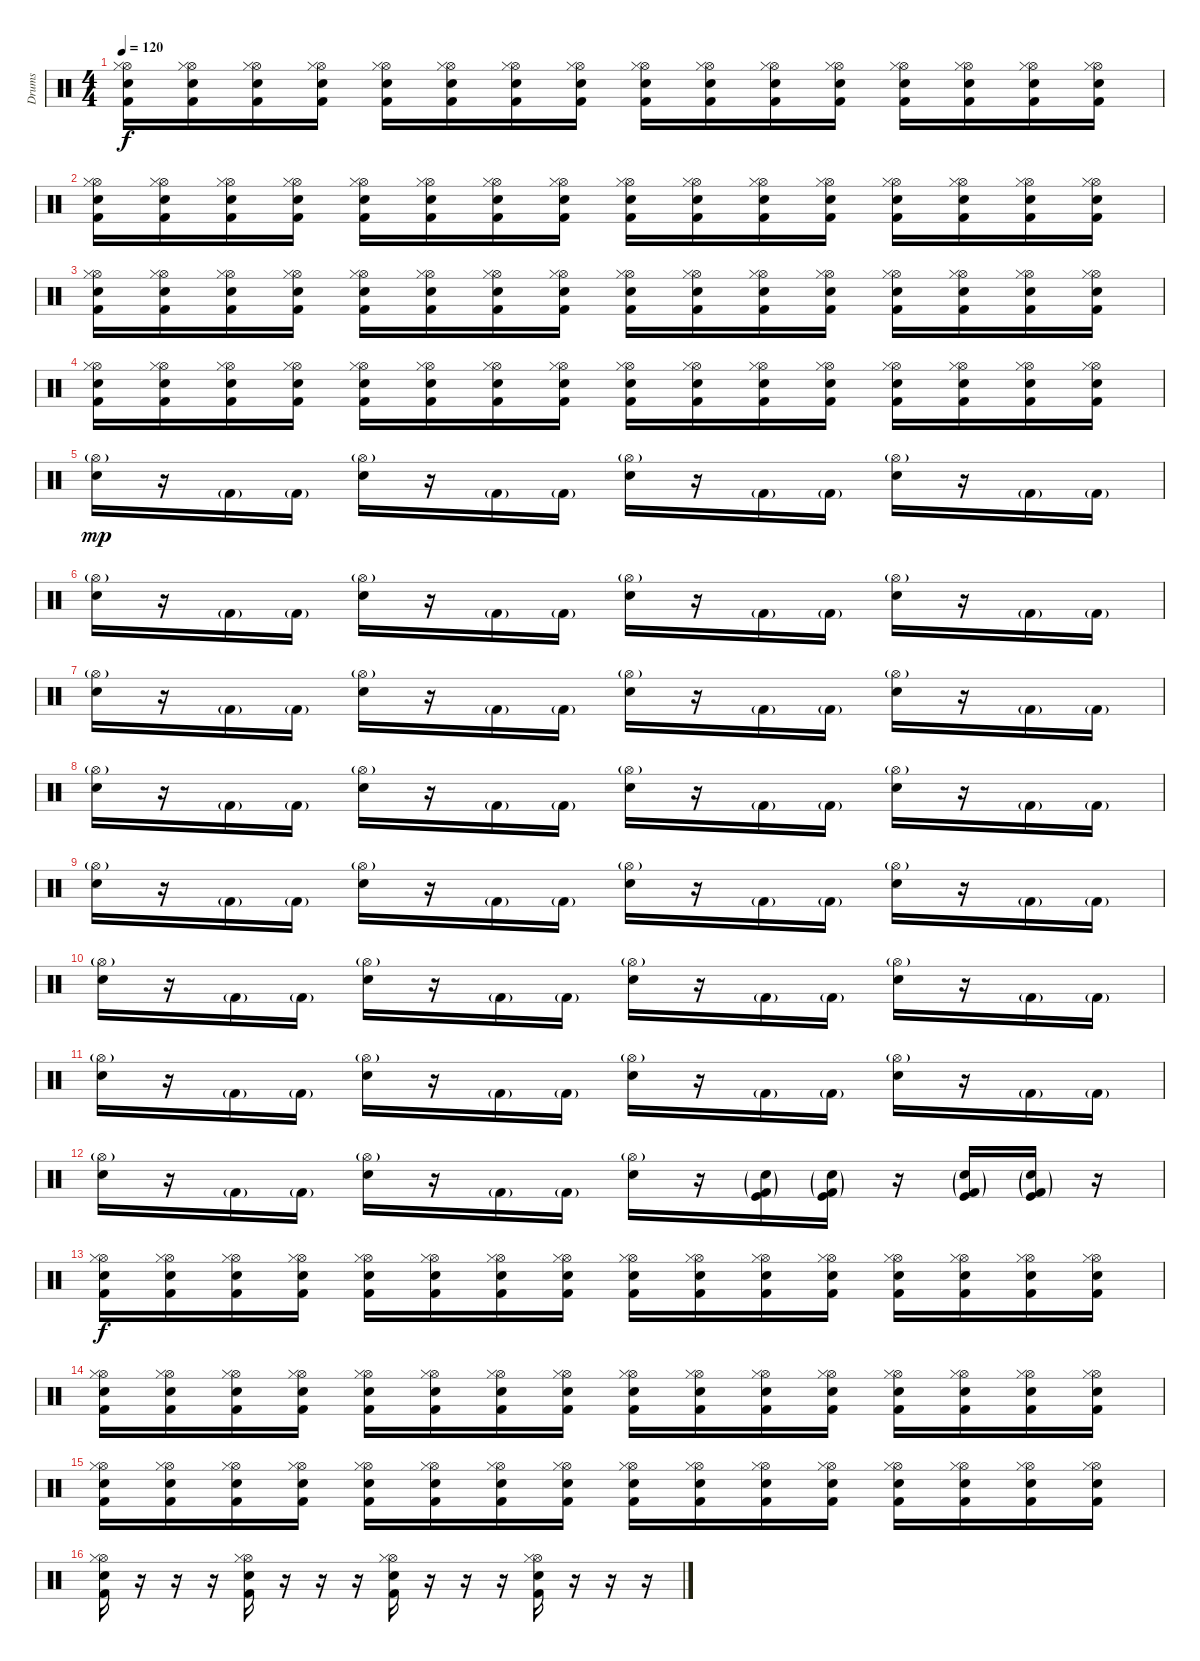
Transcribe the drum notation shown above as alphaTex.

\track ("Drums" "Drums") {instrument percussion}
\staff {score}
\articulation defaults
\ts (4 4)
\tempo 120
\clef neutral
\ks c
("Kick (hit) 2" "Electric Snare (hit)" "Hi-Hat (open)" "Hi-Hat (closed)").16{dy f} ("Kick (hit) 2" "Electric Snare (hit)" "Hi-Hat (open)" "Hi-Hat (closed)").16 ("Kick (hit) 2" "Electric Snare (hit)" "Hi-Hat (open)" "Hi-Hat (closed)").16 ("Kick (hit) 2" "Electric Snare (hit)" "Hi-Hat (open)" "Hi-Hat (closed)").16 ("Kick (hit) 2" "Electric Snare (hit)" "Hi-Hat (open)" "Hi-Hat (closed)").16 ("Kick (hit) 2" "Electric Snare (hit)" "Hi-Hat (open)" "Hi-Hat (closed)").16 ("Kick (hit) 2" "Electric Snare (hit)" "Hi-Hat (open)" "Hi-Hat (closed)").16 ("Kick (hit) 2" "Electric Snare (hit)" "Hi-Hat (open)" "Hi-Hat (closed)").16 ("Kick (hit) 2" "Electric Snare (hit)" "Hi-Hat (open)" "Hi-Hat (closed)").16 ("Kick (hit) 2" "Electric Snare (hit)" "Hi-Hat (open)" "Hi-Hat (closed)").16 ("Kick (hit) 2" "Electric Snare (hit)" "Hi-Hat (open)" "Hi-Hat (closed)").16 ("Kick (hit) 2" "Electric Snare (hit)" "Hi-Hat (open)" "Hi-Hat (closed)").16 ("Kick (hit) 2" "Electric Snare (hit)" "Hi-Hat (open)" "Hi-Hat (closed)").16 ("Kick (hit) 2" "Electric Snare (hit)" "Hi-Hat (open)" "Hi-Hat (closed)").16 ("Kick (hit) 2" "Electric Snare (hit)" "Hi-Hat (open)" "Hi-Hat (closed)").16 ("Kick (hit) 2" "Electric Snare (hit)" "Hi-Hat (open)" "Hi-Hat (closed)").16 |
("Kick (hit) 2" "Electric Snare (hit)" "Hi-Hat (open)" "Hi-Hat (closed)").16 ("Kick (hit) 2" "Electric Snare (hit)" "Hi-Hat (open)" "Hi-Hat (closed)").16 ("Kick (hit) 2" "Electric Snare (hit)" "Hi-Hat (open)" "Hi-Hat (closed)").16 ("Kick (hit) 2" "Electric Snare (hit)" "Hi-Hat (open)" "Hi-Hat (closed)").16 ("Kick (hit) 2" "Electric Snare (hit)" "Hi-Hat (open)" "Hi-Hat (closed)").16 ("Kick (hit) 2" "Electric Snare (hit)" "Hi-Hat (open)" "Hi-Hat (closed)").16 ("Kick (hit) 2" "Electric Snare (hit)" "Hi-Hat (open)" "Hi-Hat (closed)").16 ("Kick (hit) 2" "Electric Snare (hit)" "Hi-Hat (open)" "Hi-Hat (closed)").16 ("Kick (hit) 2" "Electric Snare (hit)" "Hi-Hat (open)" "Hi-Hat (closed)").16 ("Kick (hit) 2" "Electric Snare (hit)" "Hi-Hat (open)" "Hi-Hat (closed)").16 ("Kick (hit) 2" "Electric Snare (hit)" "Hi-Hat (open)" "Hi-Hat (closed)").16 ("Kick (hit) 2" "Electric Snare (hit)" "Hi-Hat (open)" "Hi-Hat (closed)").16 ("Kick (hit) 2" "Electric Snare (hit)" "Hi-Hat (open)" "Hi-Hat (closed)").16 ("Kick (hit) 2" "Electric Snare (hit)" "Hi-Hat (open)" "Hi-Hat (closed)").16 ("Kick (hit) 2" "Electric Snare (hit)" "Hi-Hat (open)" "Hi-Hat (closed)").16 ("Kick (hit) 2" "Electric Snare (hit)" "Hi-Hat (open)" "Hi-Hat (closed)").16 |
("Kick (hit) 2" "Electric Snare (hit)" "Hi-Hat (open)" "Hi-Hat (closed)").16 ("Kick (hit) 2" "Electric Snare (hit)" "Hi-Hat (open)" "Hi-Hat (closed)").16 ("Kick (hit) 2" "Electric Snare (hit)" "Hi-Hat (open)" "Hi-Hat (closed)").16 ("Kick (hit) 2" "Electric Snare (hit)" "Hi-Hat (open)" "Hi-Hat (closed)").16 ("Kick (hit) 2" "Electric Snare (hit)" "Hi-Hat (open)" "Hi-Hat (closed)").16 ("Kick (hit) 2" "Electric Snare (hit)" "Hi-Hat (open)" "Hi-Hat (closed)").16 ("Kick (hit) 2" "Electric Snare (hit)" "Hi-Hat (open)" "Hi-Hat (closed)").16 ("Kick (hit) 2" "Electric Snare (hit)" "Hi-Hat (open)" "Hi-Hat (closed)").16 ("Kick (hit) 2" "Electric Snare (hit)" "Hi-Hat (open)" "Hi-Hat (closed)").16 ("Kick (hit) 2" "Electric Snare (hit)" "Hi-Hat (open)" "Hi-Hat (closed)").16 ("Kick (hit) 2" "Electric Snare (hit)" "Hi-Hat (open)" "Hi-Hat (closed)").16 ("Kick (hit) 2" "Electric Snare (hit)" "Hi-Hat (open)" "Hi-Hat (closed)").16 ("Kick (hit) 2" "Electric Snare (hit)" "Hi-Hat (open)" "Hi-Hat (closed)").16 ("Kick (hit) 2" "Electric Snare (hit)" "Hi-Hat (open)" "Hi-Hat (closed)").16 ("Kick (hit) 2" "Electric Snare (hit)" "Hi-Hat (open)" "Hi-Hat (closed)").16 ("Kick (hit) 2" "Electric Snare (hit)" "Hi-Hat (open)" "Hi-Hat (closed)").16 |
("Kick (hit) 2" "Electric Snare (hit)" "Hi-Hat (open)" "Hi-Hat (closed)").16 ("Kick (hit) 2" "Electric Snare (hit)" "Hi-Hat (open)" "Hi-Hat (closed)").16 ("Kick (hit) 2" "Electric Snare (hit)" "Hi-Hat (open)" "Hi-Hat (closed)").16 ("Kick (hit) 2" "Electric Snare (hit)" "Hi-Hat (open)" "Hi-Hat (closed)").16 ("Kick (hit) 2" "Electric Snare (hit)" "Hi-Hat (open)" "Hi-Hat (closed)").16 ("Kick (hit) 2" "Electric Snare (hit)" "Hi-Hat (open)" "Hi-Hat (closed)").16 ("Kick (hit) 2" "Electric Snare (hit)" "Hi-Hat (open)" "Hi-Hat (closed)").16 ("Kick (hit) 2" "Electric Snare (hit)" "Hi-Hat (open)" "Hi-Hat (closed)").16 ("Kick (hit) 2" "Electric Snare (hit)" "Hi-Hat (open)" "Hi-Hat (closed)").16 ("Kick (hit) 2" "Electric Snare (hit)" "Hi-Hat (open)" "Hi-Hat (closed)").16 ("Kick (hit) 2" "Electric Snare (hit)" "Hi-Hat (open)" "Hi-Hat (closed)").16 ("Kick (hit) 2" "Electric Snare (hit)" "Hi-Hat (open)" "Hi-Hat (closed)").16 ("Kick (hit) 2" "Electric Snare (hit)" "Hi-Hat (open)" "Hi-Hat (closed)").16 ("Kick (hit) 2" "Electric Snare (hit)" "Hi-Hat (open)" "Hi-Hat (closed)").16 ("Kick (hit) 2" "Electric Snare (hit)" "Hi-Hat (open)" "Hi-Hat (closed)").16 ("Kick (hit) 2" "Electric Snare (hit)" "Hi-Hat (open)" "Hi-Hat (closed)").16 |
("Hi-Hat (open)"{g} "Electric Snare (hit)").16{dy mp} r.16 "Kick (hit) 2"{g}.16 "Kick (hit) 2"{g}.16 ("Hi-Hat (open)"{g} "Electric Snare (hit)").16 r.16 "Kick (hit) 2"{g}.16 "Kick (hit) 2"{g}.16 ("Hi-Hat (open)"{g} "Electric Snare (hit)").16 r.16 "Kick (hit) 2"{g}.16 "Kick (hit) 2"{g}.16 ("Hi-Hat (open)"{g} "Electric Snare (hit)").16 r.16 "Kick (hit) 2"{g}.16 "Kick (hit) 2"{g}.16 |
("Hi-Hat (open)"{g} "Electric Snare (hit)").16 r.16 "Kick (hit) 2"{g}.16 "Kick (hit) 2"{g}.16 ("Hi-Hat (open)"{g} "Electric Snare (hit)").16 r.16 "Kick (hit) 2"{g}.16 "Kick (hit) 2"{g}.16 ("Hi-Hat (open)"{g} "Electric Snare (hit)").16 r.16 "Kick (hit) 2"{g}.16 "Kick (hit) 2"{g}.16 ("Hi-Hat (open)"{g} "Electric Snare (hit)").16 r.16 "Kick (hit) 2"{g}.16 "Kick (hit) 2"{g}.16 |
("Hi-Hat (open)"{g} "Electric Snare (hit)").16 r.16 "Kick (hit) 2"{g}.16 "Kick (hit) 2"{g}.16 ("Hi-Hat (open)"{g} "Electric Snare (hit)").16 r.16 "Kick (hit) 2"{g}.16 "Kick (hit) 2"{g}.16 ("Hi-Hat (open)"{g} "Electric Snare (hit)").16 r.16 "Kick (hit) 2"{g}.16 "Kick (hit) 2"{g}.16 ("Hi-Hat (open)"{g} "Electric Snare (hit)").16 r.16 "Kick (hit) 2"{g}.16 "Kick (hit) 2"{g}.16 |
("Hi-Hat (open)"{g} "Electric Snare (hit)").16 r.16 "Kick (hit) 2"{g}.16 "Kick (hit) 2"{g}.16 ("Hi-Hat (open)"{g} "Electric Snare (hit)").16 r.16 "Kick (hit) 2"{g}.16 "Kick (hit) 2"{g}.16 ("Hi-Hat (open)"{g} "Electric Snare (hit)").16 r.16 "Kick (hit) 2"{g}.16 "Kick (hit) 2"{g}.16 ("Hi-Hat (open)"{g} "Electric Snare (hit)").16 r.16 "Kick (hit) 2"{g}.16 "Kick (hit) 2"{g}.16 |
("Hi-Hat (open)"{g} "Electric Snare (hit)").16 r.16 "Kick (hit) 2"{g}.16 "Kick (hit) 2"{g}.16 ("Hi-Hat (open)"{g} "Electric Snare (hit)").16 r.16 "Kick (hit) 2"{g}.16 "Kick (hit) 2"{g}.16 ("Hi-Hat (open)"{g} "Electric Snare (hit)").16 r.16 "Kick (hit) 2"{g}.16 "Kick (hit) 2"{g}.16 ("Hi-Hat (open)"{g} "Electric Snare (hit)").16 r.16 "Kick (hit) 2"{g}.16 "Kick (hit) 2"{g}.16 |
("Hi-Hat (open)"{g} "Electric Snare (hit)").16 r.16 "Kick (hit) 2"{g}.16 "Kick (hit) 2"{g}.16 ("Hi-Hat (open)"{g} "Electric Snare (hit)").16 r.16 "Kick (hit) 2"{g}.16 "Kick (hit) 2"{g}.16 ("Hi-Hat (open)"{g} "Electric Snare (hit)").16 r.16 "Kick (hit) 2"{g}.16 "Kick (hit) 2"{g}.16 ("Hi-Hat (open)"{g} "Electric Snare (hit)").16 r.16 "Kick (hit) 2"{g}.16 "Kick (hit) 2"{g}.16 |
("Hi-Hat (open)"{g} "Electric Snare (hit)").16 r.16 "Kick (hit) 2"{g}.16 "Kick (hit) 2"{g}.16 ("Hi-Hat (open)"{g} "Electric Snare (hit)").16 r.16 "Kick (hit) 2"{g}.16 "Kick (hit) 2"{g}.16 ("Hi-Hat (open)"{g} "Electric Snare (hit)").16 r.16 "Kick (hit) 2"{g}.16 "Kick (hit) 2"{g}.16 ("Hi-Hat (open)"{g} "Electric Snare (hit)").16 r.16 "Kick (hit) 2"{g}.16 "Kick (hit) 2"{g}.16 |
("Hi-Hat (open)"{g} "Electric Snare (hit)").16 r.16 "Kick (hit) 2"{g}.16 "Kick (hit) 2"{g}.16 ("Hi-Hat (open)"{g} "Electric Snare (hit)").16 r.16 "Kick (hit) 2"{g}.16 "Kick (hit) 2"{g}.16 ("Hi-Hat (open)"{g} "Electric Snare (hit)").16 r.16 ("Snare (hit) 2"{g} "Kick (hit) 2"{g} "Kick (hit)").16 ("Snare (hit) 2"{g} "Kick (hit) 2"{g} "Kick (hit)").16 r.16 ("Snare (hit) 2"{g} "Kick (hit) 2"{g} "Kick (hit)").16 ("Snare (hit) 2"{g} "Kick (hit) 2"{g} "Kick (hit)").16 r.16 |
("Kick (hit) 2" "Electric Snare (hit)" "Hi-Hat (open)" "Hi-Hat (closed)").16{dy f} ("Kick (hit) 2" "Electric Snare (hit)" "Hi-Hat (open)" "Hi-Hat (closed)").16 ("Kick (hit) 2" "Electric Snare (hit)" "Hi-Hat (open)" "Hi-Hat (closed)").16 ("Kick (hit) 2" "Electric Snare (hit)" "Hi-Hat (open)" "Hi-Hat (closed)").16 ("Kick (hit) 2" "Electric Snare (hit)" "Hi-Hat (open)" "Hi-Hat (closed)").16 ("Kick (hit) 2" "Electric Snare (hit)" "Hi-Hat (open)" "Hi-Hat (closed)").16 ("Kick (hit) 2" "Electric Snare (hit)" "Hi-Hat (open)" "Hi-Hat (closed)").16 ("Kick (hit) 2" "Electric Snare (hit)" "Hi-Hat (open)" "Hi-Hat (closed)").16 ("Kick (hit) 2" "Electric Snare (hit)" "Hi-Hat (open)" "Hi-Hat (closed)").16 ("Kick (hit) 2" "Electric Snare (hit)" "Hi-Hat (open)" "Hi-Hat (closed)").16 ("Kick (hit) 2" "Electric Snare (hit)" "Hi-Hat (open)" "Hi-Hat (closed)").16 ("Kick (hit) 2" "Electric Snare (hit)" "Hi-Hat (open)" "Hi-Hat (closed)").16 ("Kick (hit) 2" "Electric Snare (hit)" "Hi-Hat (open)" "Hi-Hat (closed)").16 ("Kick (hit) 2" "Electric Snare (hit)" "Hi-Hat (open)" "Hi-Hat (closed)").16 ("Kick (hit) 2" "Electric Snare (hit)" "Hi-Hat (open)" "Hi-Hat (closed)").16 ("Kick (hit) 2" "Electric Snare (hit)" "Hi-Hat (open)" "Hi-Hat (closed)").16 |
("Kick (hit) 2" "Electric Snare (hit)" "Hi-Hat (open)" "Hi-Hat (closed)").16 ("Kick (hit) 2" "Electric Snare (hit)" "Hi-Hat (open)" "Hi-Hat (closed)").16 ("Kick (hit) 2" "Electric Snare (hit)" "Hi-Hat (open)" "Hi-Hat (closed)").16 ("Kick (hit) 2" "Electric Snare (hit)" "Hi-Hat (open)" "Hi-Hat (closed)").16 ("Kick (hit) 2" "Electric Snare (hit)" "Hi-Hat (open)" "Hi-Hat (closed)").16 ("Kick (hit) 2" "Electric Snare (hit)" "Hi-Hat (open)" "Hi-Hat (closed)").16 ("Kick (hit) 2" "Electric Snare (hit)" "Hi-Hat (open)" "Hi-Hat (closed)").16 ("Kick (hit) 2" "Electric Snare (hit)" "Hi-Hat (open)" "Hi-Hat (closed)").16 ("Kick (hit) 2" "Electric Snare (hit)" "Hi-Hat (open)" "Hi-Hat (closed)").16 ("Kick (hit) 2" "Electric Snare (hit)" "Hi-Hat (open)" "Hi-Hat (closed)").16 ("Kick (hit) 2" "Electric Snare (hit)" "Hi-Hat (open)" "Hi-Hat (closed)").16 ("Kick (hit) 2" "Electric Snare (hit)" "Hi-Hat (open)" "Hi-Hat (closed)").16 ("Kick (hit) 2" "Electric Snare (hit)" "Hi-Hat (open)" "Hi-Hat (closed)").16 ("Kick (hit) 2" "Electric Snare (hit)" "Hi-Hat (open)" "Hi-Hat (closed)").16 ("Kick (hit) 2" "Electric Snare (hit)" "Hi-Hat (open)" "Hi-Hat (closed)").16 ("Kick (hit) 2" "Electric Snare (hit)" "Hi-Hat (open)" "Hi-Hat (closed)").16 |
("Kick (hit) 2" "Electric Snare (hit)" "Hi-Hat (open)" "Hi-Hat (closed)").16 ("Kick (hit) 2" "Electric Snare (hit)" "Hi-Hat (open)" "Hi-Hat (closed)").16 ("Kick (hit) 2" "Electric Snare (hit)" "Hi-Hat (open)" "Hi-Hat (closed)").16 ("Kick (hit) 2" "Electric Snare (hit)" "Hi-Hat (open)" "Hi-Hat (closed)").16 ("Kick (hit) 2" "Electric Snare (hit)" "Hi-Hat (open)" "Hi-Hat (closed)").16 ("Kick (hit) 2" "Electric Snare (hit)" "Hi-Hat (open)" "Hi-Hat (closed)").16 ("Kick (hit) 2" "Electric Snare (hit)" "Hi-Hat (open)" "Hi-Hat (closed)").16 ("Kick (hit) 2" "Electric Snare (hit)" "Hi-Hat (open)" "Hi-Hat (closed)").16 ("Kick (hit) 2" "Electric Snare (hit)" "Hi-Hat (open)" "Hi-Hat (closed)").16 ("Kick (hit) 2" "Electric Snare (hit)" "Hi-Hat (open)" "Hi-Hat (closed)").16 ("Kick (hit) 2" "Electric Snare (hit)" "Hi-Hat (open)" "Hi-Hat (closed)").16 ("Kick (hit) 2" "Electric Snare (hit)" "Hi-Hat (open)" "Hi-Hat (closed)").16 ("Kick (hit) 2" "Electric Snare (hit)" "Hi-Hat (open)" "Hi-Hat (closed)").16 ("Kick (hit) 2" "Electric Snare (hit)" "Hi-Hat (open)" "Hi-Hat (closed)").16 ("Kick (hit) 2" "Electric Snare (hit)" "Hi-Hat (open)" "Hi-Hat (closed)").16 ("Kick (hit) 2" "Electric Snare (hit)" "Hi-Hat (open)" "Hi-Hat (closed)").16 |
("Kick (hit) 2" "Electric Snare (hit)" "Hi-Hat (open)" "Hi-Hat (closed)").16 r.16 r.16 r.16 ("Kick (hit) 2" "Electric Snare (hit)" "Hi-Hat (open)" "Hi-Hat (closed)").16 r.16 r.16 r.16 ("Kick (hit) 2" "Electric Snare (hit)" "Hi-Hat (open)" "Hi-Hat (closed)").16 r.16 r.16 r.16 ("Kick (hit) 2" "Electric Snare (hit)" "Hi-Hat (open)" "Hi-Hat (closed)").16 r.16 r.16 r.16
